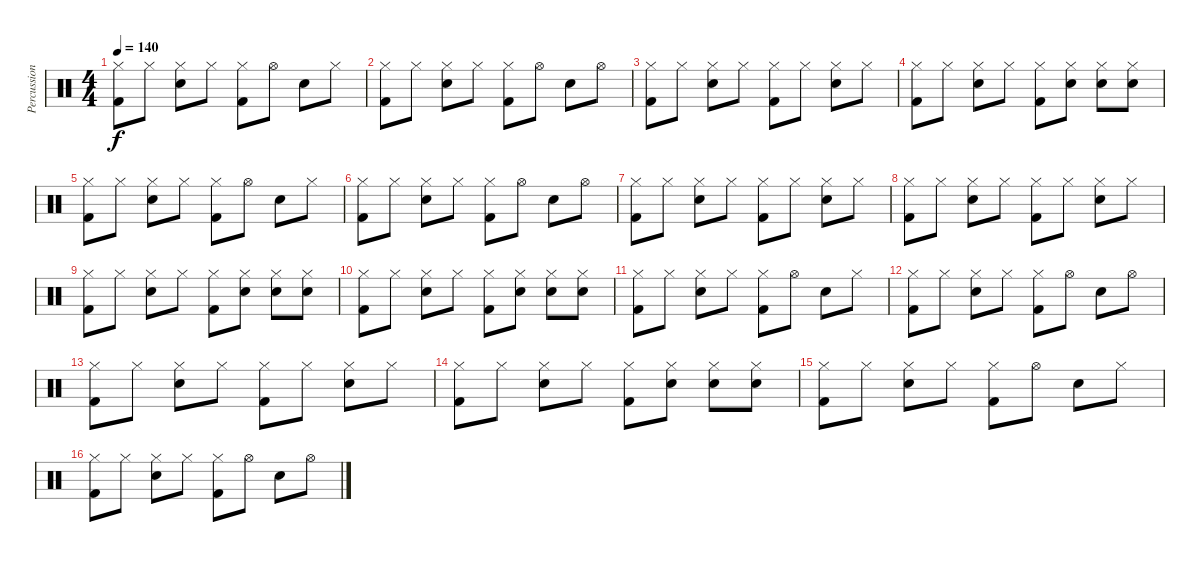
\track ("Percussion" "Percussion") {instrument percussion}
\staff {score}
\articulation defaults
\ts (4 4)
\tempo 140
\clef neutral
\ks c
("Hi-Hat (closed)" "Kick (hit) 2").8{dy f} "Hi-Hat (closed)".8 ("Hi-Hat (closed)" "Electric Snare (hit)").8 "Hi-Hat (closed)".8 ("Hi-Hat (closed)" "Kick (hit) 2").8 "Hi-Hat (open)".8 "Electric Snare (hit)".8 "Hi-Hat (closed)".8 |
("Hi-Hat (closed)" "Kick (hit) 2").8 "Hi-Hat (closed)".8 ("Hi-Hat (closed)" "Electric Snare (hit)").8 "Hi-Hat (closed)".8 ("Hi-Hat (closed)" "Kick (hit) 2").8 "Hi-Hat (open)".8 "Electric Snare (hit)".8 "Hi-Hat (open)".8 |
("Hi-Hat (closed)" "Kick (hit) 2").8 "Hi-Hat (closed)".8 ("Hi-Hat (closed)" "Electric Snare (hit)").8 "Hi-Hat (closed)".8 ("Hi-Hat (closed)" "Kick (hit) 2").8 "Hi-Hat (closed)".8 ("Hi-Hat (closed)" "Electric Snare (hit)").8 "Hi-Hat (closed)".8 |
("Hi-Hat (closed)" "Kick (hit) 2").8 "Hi-Hat (closed)".8 ("Hi-Hat (closed)" "Electric Snare (hit)").8 "Hi-Hat (closed)".8 ("Hi-Hat (closed)" "Kick (hit) 2").8 ("Hi-Hat (closed)" "Electric Snare (hit)").8 ("Hi-Hat (closed)" "Electric Snare (hit)").8 ("Hi-Hat (closed)" "Electric Snare (hit)").8 |
("Hi-Hat (closed)" "Kick (hit) 2").8 "Hi-Hat (closed)".8 ("Hi-Hat (closed)" "Electric Snare (hit)").8 "Hi-Hat (closed)".8 ("Hi-Hat (closed)" "Kick (hit) 2").8 "Hi-Hat (open)".8 "Electric Snare (hit)".8 "Hi-Hat (closed)".8 |
("Hi-Hat (closed)" "Kick (hit) 2").8 "Hi-Hat (closed)".8 ("Hi-Hat (closed)" "Electric Snare (hit)").8 "Hi-Hat (closed)".8 ("Hi-Hat (closed)" "Kick (hit) 2").8 "Hi-Hat (open)".8 "Electric Snare (hit)".8 "Hi-Hat (open)".8 |
("Hi-Hat (closed)" "Kick (hit) 2").8 "Hi-Hat (closed)".8 ("Hi-Hat (closed)" "Electric Snare (hit)").8 "Hi-Hat (closed)".8 ("Hi-Hat (closed)" "Kick (hit) 2").8 "Hi-Hat (closed)".8 ("Hi-Hat (closed)" "Electric Snare (hit)").8 "Hi-Hat (closed)".8 |
("Hi-Hat (closed)" "Kick (hit) 2").8 "Hi-Hat (closed)".8 ("Hi-Hat (closed)" "Electric Snare (hit)").8 "Hi-Hat (closed)".8 ("Hi-Hat (closed)" "Kick (hit) 2").8 "Hi-Hat (closed)".8 ("Hi-Hat (closed)" "Electric Snare (hit)").8 "Hi-Hat (closed)".8 |
("Hi-Hat (closed)" "Kick (hit) 2").8 "Hi-Hat (closed)".8 ("Hi-Hat (closed)" "Electric Snare (hit)").8 "Hi-Hat (closed)".8 ("Hi-Hat (closed)" "Kick (hit) 2").8 ("Hi-Hat (closed)" "Electric Snare (hit)").8 ("Hi-Hat (closed)" "Electric Snare (hit)").8 ("Hi-Hat (closed)" "Electric Snare (hit)").8 |
("Hi-Hat (closed)" "Kick (hit) 2").8 "Hi-Hat (closed)".8 ("Hi-Hat (closed)" "Electric Snare (hit)").8 "Hi-Hat (closed)".8 ("Hi-Hat (closed)" "Kick (hit) 2").8 ("Hi-Hat (closed)" "Electric Snare (hit)").8 ("Hi-Hat (closed)" "Electric Snare (hit)").8 ("Hi-Hat (closed)" "Electric Snare (hit)").8 |
("Hi-Hat (closed)" "Kick (hit) 2").8 "Hi-Hat (closed)".8 ("Hi-Hat (closed)" "Electric Snare (hit)").8 "Hi-Hat (closed)".8 ("Hi-Hat (closed)" "Kick (hit) 2").8 "Hi-Hat (open)".8 "Electric Snare (hit)".8 "Hi-Hat (closed)".8 |
("Hi-Hat (closed)" "Kick (hit) 2").8 "Hi-Hat (closed)".8 ("Hi-Hat (closed)" "Electric Snare (hit)").8 "Hi-Hat (closed)".8 ("Hi-Hat (closed)" "Kick (hit) 2").8 "Hi-Hat (open)".8 "Electric Snare (hit)".8 "Hi-Hat (open)".8 |
("Hi-Hat (closed)" "Kick (hit) 2").8 "Hi-Hat (closed)".8 ("Hi-Hat (closed)" "Electric Snare (hit)").8 "Hi-Hat (closed)".8 ("Hi-Hat (closed)" "Kick (hit) 2").8 "Hi-Hat (closed)".8 ("Hi-Hat (closed)" "Electric Snare (hit)").8 "Hi-Hat (closed)".8 |
("Hi-Hat (closed)" "Kick (hit) 2").8 "Hi-Hat (closed)".8 ("Hi-Hat (closed)" "Electric Snare (hit)").8 "Hi-Hat (closed)".8 ("Hi-Hat (closed)" "Kick (hit) 2").8 ("Hi-Hat (closed)" "Electric Snare (hit)").8 ("Hi-Hat (closed)" "Electric Snare (hit)").8 ("Hi-Hat (closed)" "Electric Snare (hit)").8 |
("Hi-Hat (closed)" "Kick (hit) 2").8 "Hi-Hat (closed)".8 ("Hi-Hat (closed)" "Electric Snare (hit)").8 "Hi-Hat (closed)".8 ("Hi-Hat (closed)" "Kick (hit) 2").8 "Hi-Hat (open)".8 "Electric Snare (hit)".8 "Hi-Hat (closed)".8 |
("Hi-Hat (closed)" "Kick (hit) 2").8 "Hi-Hat (closed)".8 ("Hi-Hat (closed)" "Electric Snare (hit)").8 "Hi-Hat (closed)".8 ("Hi-Hat (closed)" "Kick (hit) 2").8 "Hi-Hat (open)".8 "Electric Snare (hit)".8 "Hi-Hat (open)".8
